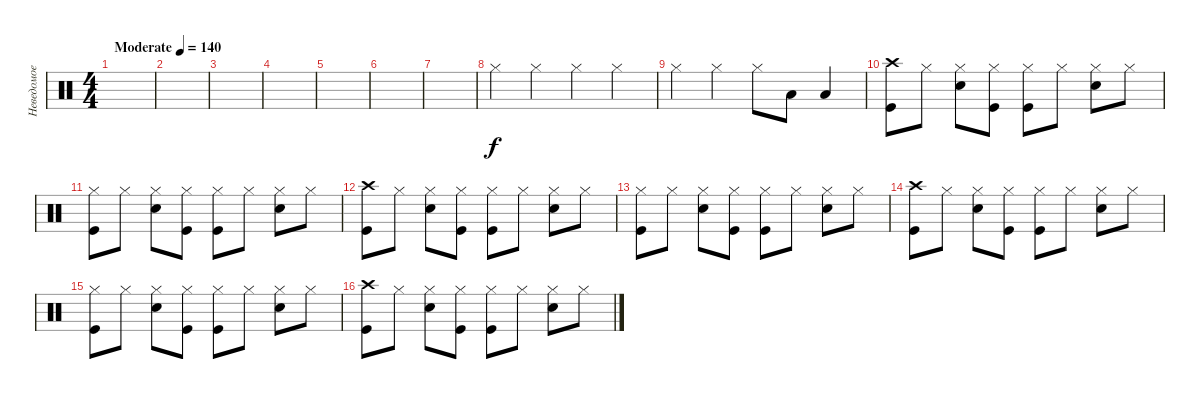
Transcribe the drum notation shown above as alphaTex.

\track ("Неведомое существо" "Неведомое ") {instrument percussion}
\staff {score}
\articulation defaults
\ts (4 4)
\tempo (140 "Moderate")
\clef neutral
\ks c
|
|
|
|
|
|
|
"Hi-Hat (closed)".4 "Hi-Hat (closed)".4 "Hi-Hat (closed)".4 "Hi-Hat (closed)".4 |
"Hi-Hat (closed)".4 "Hi-Hat (closed)".4 "Hi-Hat (closed)".8 "Low Tom (hit)".8 "Low Floor Tom (hit)".4 |
("Crash high (hit)" "Kick (hit)").8 "Hi-Hat (closed)".8 ("Hi-Hat (closed)" "Snare (hit) 2").8 ("Hi-Hat (closed)" "Kick (hit)").8 ("Hi-Hat (closed)" "Kick (hit)").8 "Hi-Hat (closed)".8 ("Hi-Hat (closed)" "Snare (hit) 2").8 "Hi-Hat (closed)".8 |
("Hi-Hat (closed)" "Kick (hit)").8 "Hi-Hat (closed)".8 ("Hi-Hat (closed)" "Snare (hit) 2").8 ("Hi-Hat (closed)" "Kick (hit)").8 ("Hi-Hat (closed)" "Kick (hit)").8 "Hi-Hat (closed)".8 ("Hi-Hat (closed)" "Snare (hit) 2").8 "Hi-Hat (closed)".8 |
("Crash high (hit)" "Kick (hit)").8 "Hi-Hat (closed)".8 ("Hi-Hat (closed)" "Snare (hit) 2").8 ("Hi-Hat (closed)" "Kick (hit)").8 ("Hi-Hat (closed)" "Kick (hit)").8 "Hi-Hat (closed)".8 ("Hi-Hat (closed)" "Snare (hit) 2").8 "Hi-Hat (closed)".8 |
("Hi-Hat (closed)" "Kick (hit)").8 "Hi-Hat (closed)".8 ("Hi-Hat (closed)" "Snare (hit) 2").8 ("Hi-Hat (closed)" "Kick (hit)").8 ("Hi-Hat (closed)" "Kick (hit)").8 "Hi-Hat (closed)".8 ("Hi-Hat (closed)" "Snare (hit) 2").8 "Hi-Hat (closed)".8 |
("Crash high (hit)" "Kick (hit)").8 "Hi-Hat (closed)".8 ("Hi-Hat (closed)" "Snare (hit) 2").8 ("Hi-Hat (closed)" "Kick (hit)").8 ("Hi-Hat (closed)" "Kick (hit)").8 "Hi-Hat (closed)".8 ("Hi-Hat (closed)" "Snare (hit) 2").8 "Hi-Hat (closed)".8 |
("Hi-Hat (closed)" "Kick (hit)").8 "Hi-Hat (closed)".8 ("Hi-Hat (closed)" "Snare (hit) 2").8 ("Hi-Hat (closed)" "Kick (hit)").8 ("Hi-Hat (closed)" "Kick (hit)").8 "Hi-Hat (closed)".8 ("Hi-Hat (closed)" "Snare (hit) 2").8 "Hi-Hat (closed)".8 |
("Crash high (hit)" "Kick (hit)").8 "Hi-Hat (closed)".8 ("Hi-Hat (closed)" "Snare (hit) 2").8 ("Hi-Hat (closed)" "Kick (hit)").8 ("Hi-Hat (closed)" "Kick (hit)").8 "Hi-Hat (closed)".8 ("Hi-Hat (closed)" "Snare (hit) 2").8 "Hi-Hat (closed)".8
